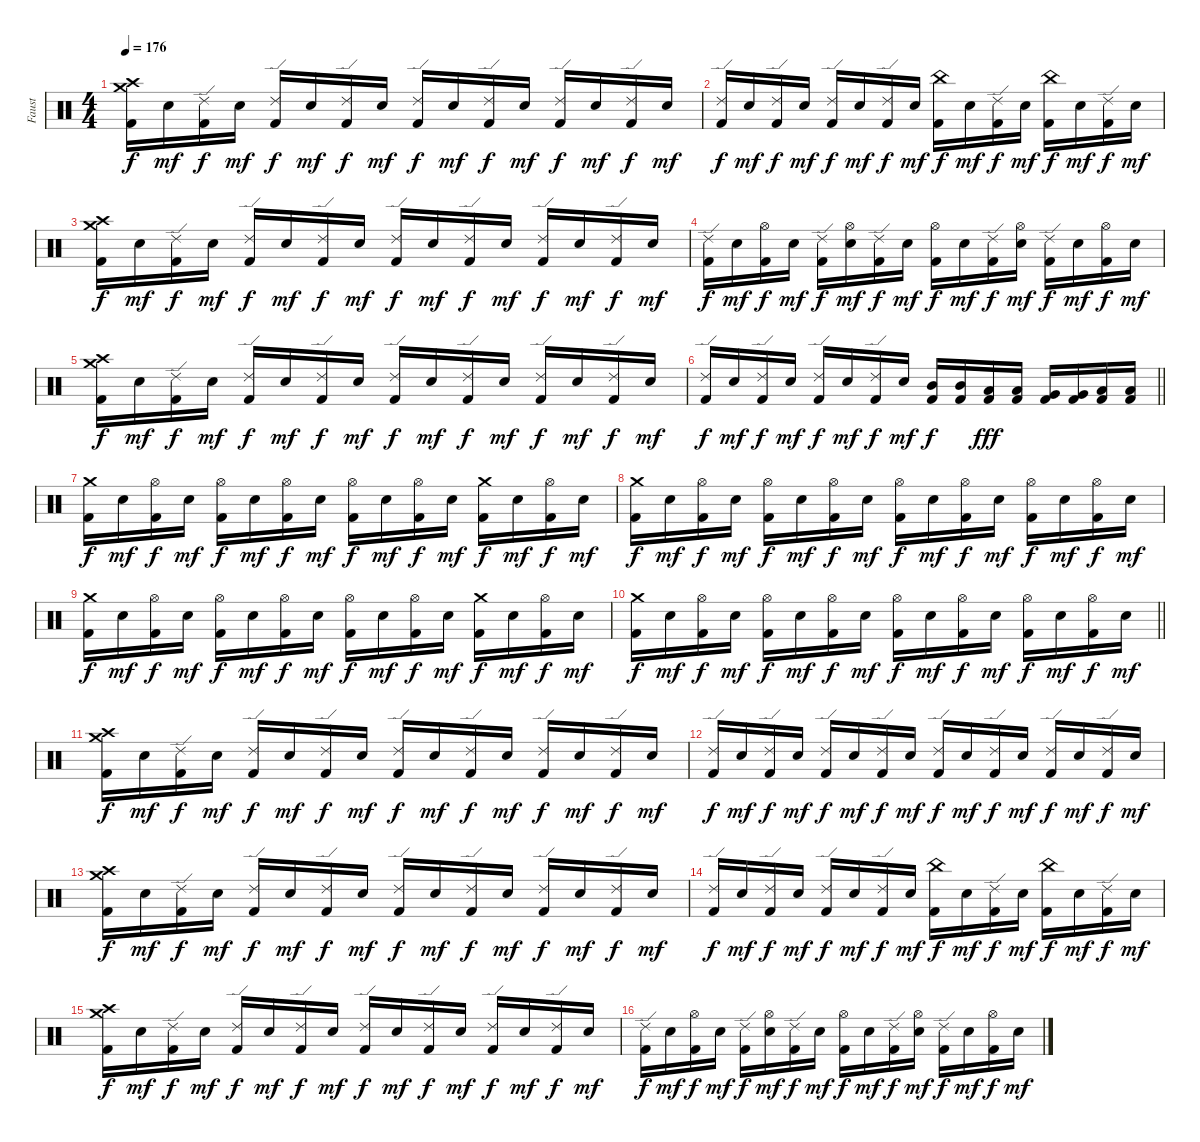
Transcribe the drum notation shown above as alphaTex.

\track ("Faust" "Faust") {instrument percussion}
\staff {score}
\articulation defaults
\ts (4 4)
\tempo 176
\clef neutral
\ks c
("Crash high (hit)" "Crash medium (hit)" "Kick (hit) 2").16{dy f} "Electric Snare (hit)".16{dy mf} ("Ride (edge) 2" "Kick (hit) 2").16{dy f} "Electric Snare (hit)".16{dy mf} ("Ride (edge) 2" "Kick (hit) 2").16{dy f} "Electric Snare (hit)".16{dy mf} ("Ride (edge) 2" "Kick (hit) 2").16{dy f} "Electric Snare (hit)".16{dy mf} ("Ride (edge) 2" "Kick (hit) 2").16{dy f} "Electric Snare (hit)".16{dy mf} ("Ride (edge) 2" "Kick (hit) 2").16{dy f} "Electric Snare (hit)".16{dy mf} ("Ride (edge) 2" "Kick (hit) 2").16{dy f} "Electric Snare (hit)".16{dy mf} ("Ride (edge) 2" "Kick (hit) 2").16{dy f} "Electric Snare (hit)".16{dy mf} |
("Ride (edge) 2" "Kick (hit) 2").16{dy f} "Electric Snare (hit)".16{dy mf} ("Ride (edge) 2" "Kick (hit) 2").16{dy f} "Electric Snare (hit)".16{dy mf} ("Ride (edge) 2" "Kick (hit) 2").16{dy f} "Electric Snare (hit)".16{dy mf} ("Ride (edge) 2" "Kick (hit) 2").16{dy f} "Electric Snare (hit)".16{dy mf} ("China (hit)" "Kick (hit) 2").16{dy f} "Electric Snare (hit)".16{dy mf} ("Ride (edge) 2" "Kick (hit) 2").16{dy f} "Electric Snare (hit)".16{dy mf} ("China (hit)" "Kick (hit) 2").16{dy f} "Electric Snare (hit)".16{dy mf} ("Ride (edge) 2" "Kick (hit) 2").16{dy f} "Electric Snare (hit)".16{dy mf} |
("Crash high (hit)" "Crash medium (hit)" "Kick (hit) 2").16{dy f} "Electric Snare (hit)".16{dy mf} ("Ride (edge) 2" "Kick (hit) 2").16{dy f} "Electric Snare (hit)".16{dy mf} ("Ride (edge) 2" "Kick (hit) 2").16{dy f} "Electric Snare (hit)".16{dy mf} ("Ride (edge) 2" "Kick (hit) 2").16{dy f} "Electric Snare (hit)".16{dy mf} ("Ride (edge) 2" "Kick (hit) 2").16{dy f} "Electric Snare (hit)".16{dy mf} ("Ride (edge) 2" "Kick (hit) 2").16{dy f} "Electric Snare (hit)".16{dy mf} ("Ride (edge) 2" "Kick (hit) 2").16{dy f} "Electric Snare (hit)".16{dy mf} ("Ride (edge) 2" "Kick (hit) 2").16{dy f} "Electric Snare (hit)".16{dy mf} |
("Ride (edge) 2" "Kick (hit) 2").16{dy f} "Electric Snare (hit)".16{dy mf} ("Hi-Hat (open)" "Kick (hit) 2").16{dy f} "Electric Snare (hit)".16{dy mf} ("Ride (edge) 2" "Kick (hit) 2").16{dy f} ("Hi-Hat (open)" "Electric Snare (hit)").16{dy mf} ("Ride (edge) 2" "Kick (hit) 2").16{dy f} "Electric Snare (hit)".16{dy mf} ("Hi-Hat (open)" "Kick (hit) 2").16{dy f} "Electric Snare (hit)".16{dy mf} ("Ride (edge) 2" "Kick (hit) 2").16{dy f} ("Hi-Hat (open)" "Electric Snare (hit)").16{dy mf} ("Ride (edge) 2" "Kick (hit) 2").16{dy f} "Electric Snare (hit)".16{dy mf} ("Hi-Hat (open)" "Kick (hit) 2").16{dy f} "Electric Snare (hit)".16{dy mf} |
("Crash high (hit)" "Crash medium (hit)" "Kick (hit) 2").16{dy f} "Electric Snare (hit)".16{dy mf} ("Ride (edge) 2" "Kick (hit) 2").16{dy f} "Electric Snare (hit)".16{dy mf} ("Ride (edge) 2" "Kick (hit) 2").16{dy f} "Electric Snare (hit)".16{dy mf} ("Ride (edge) 2" "Kick (hit) 2").16{dy f} "Electric Snare (hit)".16{dy mf} ("Ride (edge) 2" "Kick (hit) 2").16{dy f} "Electric Snare (hit)".16{dy mf} ("Ride (edge) 2" "Kick (hit) 2").16{dy f} "Electric Snare (hit)".16{dy mf} ("Ride (edge) 2" "Kick (hit) 2").16{dy f} "Electric Snare (hit)".16{dy mf} ("Ride (edge) 2" "Kick (hit) 2").16{dy f} "Electric Snare (hit)".16{dy mf} |
\barLineRight lightlight
("Ride (edge) 2" "Kick (hit) 2").16{dy f} "Electric Snare (hit)".16{dy mf} ("Ride (edge) 2" "Kick (hit) 2").16{dy f} "Electric Snare (hit)".16{dy mf} ("Ride (edge) 2" "Kick (hit) 2").16{dy f} "Electric Snare (hit)".16{dy mf} ("Ride (edge) 2" "Kick (hit) 2").16{dy f} "Electric Snare (hit)".16{dy mf} ("Mid Tom (hit)" "Kick (hit) 2").16{dy f} ("Mid Tom (hit)" "Kick (hit) 2").16 ("Low Tom (hit)" "Kick (hit) 2").16{dy fff} ("Low Tom (hit)" "Kick (hit) 2").16 ("Very Low Tom (hit)" "Kick (hit) 2").16 ("Very Low Tom (hit)" "Kick (hit) 2").16 ("Low Floor Tom (hit)" "Kick (hit) 2").16 ("Low Floor Tom (hit)" "Kick (hit) 2").16 |
\section ("" "")
("Crash medium (hit)" "Kick (hit) 2").16{dy f} "Electric Snare (hit)".16{dy mf} ("Hi-Hat (open)" "Kick (hit) 2").16{dy f} "Electric Snare (hit)".16{dy mf} ("Hi-Hat (open)" "Kick (hit) 2").16{dy f} "Electric Snare (hit)".16{dy mf} ("Hi-Hat (open)" "Kick (hit) 2").16{dy f} "Electric Snare (hit)".16{dy mf} ("Hi-Hat (open)" "Kick (hit) 2").16{dy f} "Electric Snare (hit)".16{dy mf} ("Hi-Hat (open)" "Kick (hit) 2").16{dy f} "Electric Snare (hit)".16{dy mf} ("Crash medium (hit)" "Kick (hit) 2").16{dy f} "Electric Snare (hit)".16{dy mf} ("Hi-Hat (open)" "Kick (hit) 2").16{dy f} "Electric Snare (hit)".16{dy mf} |
("Crash medium (hit)" "Kick (hit) 2").16{dy f} "Electric Snare (hit)".16{dy mf} ("Hi-Hat (open)" "Kick (hit) 2").16{dy f} "Electric Snare (hit)".16{dy mf} ("Hi-Hat (open)" "Kick (hit) 2").16{dy f} "Electric Snare (hit)".16{dy mf} ("Hi-Hat (open)" "Kick (hit) 2").16{dy f} "Electric Snare (hit)".16{dy mf} ("Hi-Hat (open)" "Kick (hit) 2").16{dy f} "Electric Snare (hit)".16{dy mf} ("Hi-Hat (open)" "Kick (hit) 2").16{dy f} "Electric Snare (hit)".16{dy mf} ("Hi-Hat (open)" "Kick (hit) 2").16{dy f} "Electric Snare (hit)".16{dy mf} ("Hi-Hat (open)" "Kick (hit) 2").16{dy f} "Electric Snare (hit)".16{dy mf} |
("Crash medium (hit)" "Kick (hit) 2").16{dy f} "Electric Snare (hit)".16{dy mf} ("Hi-Hat (open)" "Kick (hit) 2").16{dy f} "Electric Snare (hit)".16{dy mf} ("Hi-Hat (open)" "Kick (hit) 2").16{dy f} "Electric Snare (hit)".16{dy mf} ("Hi-Hat (open)" "Kick (hit) 2").16{dy f} "Electric Snare (hit)".16{dy mf} ("Hi-Hat (open)" "Kick (hit) 2").16{dy f} "Electric Snare (hit)".16{dy mf} ("Hi-Hat (open)" "Kick (hit) 2").16{dy f} "Electric Snare (hit)".16{dy mf} ("Crash medium (hit)" "Kick (hit) 2").16{dy f} "Electric Snare (hit)".16{dy mf} ("Hi-Hat (open)" "Kick (hit) 2").16{dy f} "Electric Snare (hit)".16{dy mf} |
\barLineRight lightlight
("Crash medium (hit)" "Kick (hit) 2").16{dy f} "Electric Snare (hit)".16{dy mf} ("Hi-Hat (open)" "Kick (hit) 2").16{dy f} "Electric Snare (hit)".16{dy mf} ("Hi-Hat (open)" "Kick (hit) 2").16{dy f} "Electric Snare (hit)".16{dy mf} ("Hi-Hat (open)" "Kick (hit) 2").16{dy f} "Electric Snare (hit)".16{dy mf} ("Hi-Hat (open)" "Kick (hit) 2").16{dy f} "Electric Snare (hit)".16{dy mf} ("Hi-Hat (open)" "Kick (hit) 2").16{dy f} "Electric Snare (hit)".16{dy mf} ("Hi-Hat (open)" "Kick (hit) 2").16{dy f} "Electric Snare (hit)".16{dy mf} ("Hi-Hat (open)" "Kick (hit) 2").16{dy f} "Electric Snare (hit)".16{dy mf} |
\section ("" "")
("Crash high (hit)" "Crash medium (hit)" "Kick (hit) 2").16{dy f} "Electric Snare (hit)".16{dy mf} ("Ride (edge) 2" "Kick (hit) 2").16{dy f} "Electric Snare (hit)".16{dy mf} ("Ride (edge) 2" "Kick (hit) 2").16{dy f} "Electric Snare (hit)".16{dy mf} ("Ride (edge) 2" "Kick (hit) 2").16{dy f} "Electric Snare (hit)".16{dy mf} ("Ride (edge) 2" "Kick (hit) 2").16{dy f} "Electric Snare (hit)".16{dy mf} ("Ride (edge) 2" "Kick (hit) 2").16{dy f} "Electric Snare (hit)".16{dy mf} ("Ride (edge) 2" "Kick (hit) 2").16{dy f} "Electric Snare (hit)".16{dy mf} ("Ride (edge) 2" "Kick (hit) 2").16{dy f} "Electric Snare (hit)".16{dy mf} |
("Ride (edge) 2" "Kick (hit) 2").16{dy f} "Electric Snare (hit)".16{dy mf} ("Ride (edge) 2" "Kick (hit) 2").16{dy f} "Electric Snare (hit)".16{dy mf} ("Ride (edge) 2" "Kick (hit) 2").16{dy f} "Electric Snare (hit)".16{dy mf} ("Ride (edge) 2" "Kick (hit) 2").16{dy f} "Electric Snare (hit)".16{dy mf} ("Ride (edge) 2" "Kick (hit) 2").16{dy f} "Electric Snare (hit)".16{dy mf} ("Ride (edge) 2" "Kick (hit) 2").16{dy f} "Electric Snare (hit)".16{dy mf} ("Ride (edge) 2" "Kick (hit) 2").16{dy f} "Electric Snare (hit)".16{dy mf} ("Ride (edge) 2" "Kick (hit) 2").16{dy f} "Electric Snare (hit)".16{dy mf} |
("Crash high (hit)" "Crash medium (hit)" "Kick (hit) 2").16{dy f} "Electric Snare (hit)".16{dy mf} ("Ride (edge) 2" "Kick (hit) 2").16{dy f} "Electric Snare (hit)".16{dy mf} ("Ride (edge) 2" "Kick (hit) 2").16{dy f} "Electric Snare (hit)".16{dy mf} ("Ride (edge) 2" "Kick (hit) 2").16{dy f} "Electric Snare (hit)".16{dy mf} ("Ride (edge) 2" "Kick (hit) 2").16{dy f} "Electric Snare (hit)".16{dy mf} ("Ride (edge) 2" "Kick (hit) 2").16{dy f} "Electric Snare (hit)".16{dy mf} ("Ride (edge) 2" "Kick (hit) 2").16{dy f} "Electric Snare (hit)".16{dy mf} ("Ride (edge) 2" "Kick (hit) 2").16{dy f} "Electric Snare (hit)".16{dy mf} |
("Ride (edge) 2" "Kick (hit) 2").16{dy f} "Electric Snare (hit)".16{dy mf} ("Ride (edge) 2" "Kick (hit) 2").16{dy f} "Electric Snare (hit)".16{dy mf} ("Ride (edge) 2" "Kick (hit) 2").16{dy f} "Electric Snare (hit)".16{dy mf} ("Ride (edge) 2" "Kick (hit) 2").16{dy f} "Electric Snare (hit)".16{dy mf} ("China (hit)" "Kick (hit) 2").16{dy f} "Electric Snare (hit)".16{dy mf} ("Ride (edge) 2" "Kick (hit) 2").16{dy f} "Electric Snare (hit)".16{dy mf} ("China (hit)" "Kick (hit) 2").16{dy f} "Electric Snare (hit)".16{dy mf} ("Ride (edge) 2" "Kick (hit) 2").16{dy f} "Electric Snare (hit)".16{dy mf} |
("Crash high (hit)" "Crash medium (hit)" "Kick (hit) 2").16{dy f} "Electric Snare (hit)".16{dy mf} ("Ride (edge) 2" "Kick (hit) 2").16{dy f} "Electric Snare (hit)".16{dy mf} ("Ride (edge) 2" "Kick (hit) 2").16{dy f} "Electric Snare (hit)".16{dy mf} ("Ride (edge) 2" "Kick (hit) 2").16{dy f} "Electric Snare (hit)".16{dy mf} ("Ride (edge) 2" "Kick (hit) 2").16{dy f} "Electric Snare (hit)".16{dy mf} ("Ride (edge) 2" "Kick (hit) 2").16{dy f} "Electric Snare (hit)".16{dy mf} ("Ride (edge) 2" "Kick (hit) 2").16{dy f} "Electric Snare (hit)".16{dy mf} ("Ride (edge) 2" "Kick (hit) 2").16{dy f} "Electric Snare (hit)".16{dy mf} |
("Ride (edge) 2" "Kick (hit) 2").16{dy f} "Electric Snare (hit)".16{dy mf} ("Hi-Hat (open)" "Kick (hit) 2").16{dy f} "Electric Snare (hit)".16{dy mf} ("Ride (edge) 2" "Kick (hit) 2").16{dy f} ("Hi-Hat (open)" "Electric Snare (hit)").16{dy mf} ("Ride (edge) 2" "Kick (hit) 2").16{dy f} "Electric Snare (hit)".16{dy mf} ("Hi-Hat (open)" "Kick (hit) 2").16{dy f} "Electric Snare (hit)".16{dy mf} ("Ride (edge) 2" "Kick (hit) 2").16{dy f} ("Hi-Hat (open)" "Electric Snare (hit)").16{dy mf} ("Ride (edge) 2" "Kick (hit) 2").16{dy f} "Electric Snare (hit)".16{dy mf} ("Hi-Hat (open)" "Kick (hit) 2").16{dy f} "Electric Snare (hit)".16{dy mf}
